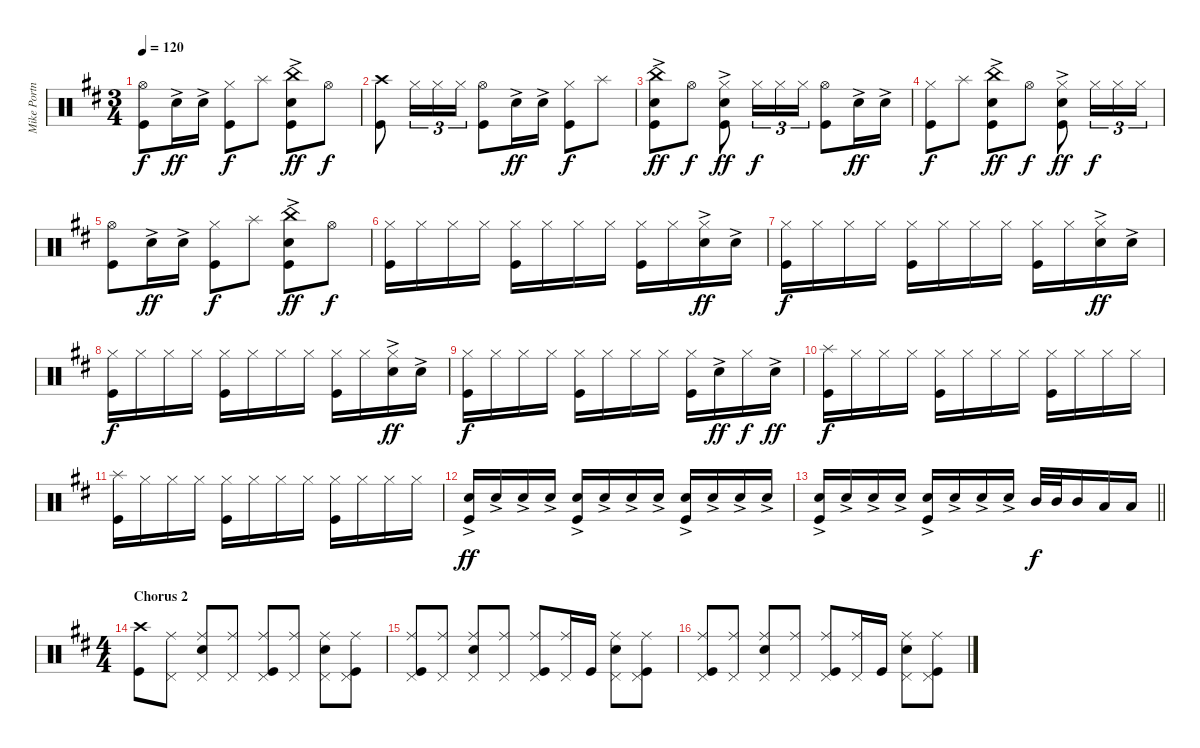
\track ("Mike Portnoy" "Mike Portn") {instrument percussion}
\staff {score}
\articulation defaults
\ts (3 4)
\tempo 120
\clef neutral
\ks bminor
("Kick (hit)" "Hi-Hat (open)").8{dy f} "Snare (hit) 2"{ac}.16{dy ff} "Snare (hit) 2"{ac}.16 ("Hi-Hat (closed)" "Kick (hit)").8{dy f} "Splash (hit)".8 ("China (hit)"{ac} "Snare (hit) 2"{ac} "Kick (hit)"{ac}).8{dy ff} "Hi-Hat (open)".8{dy f} |
("Crash high (hit)" "Kick (hit)").8 "Hi-Hat (closed)".16{tu (3 2)} "Hi-Hat (closed)".16{tu (3 2)} "Hi-Hat (closed)".16{tu (3 2)} ("Hi-Hat (open)" "Kick (hit)").8 "Snare (hit) 2"{ac}.16{dy ff} "Snare (hit) 2"{ac}.16 ("Hi-Hat (closed)" "Kick (hit)").8{dy f} "Splash (hit)".8 |
("China (hit)"{ac} "Snare (hit) 2"{ac} "Kick (hit)"{ac}).8{dy ff} "Hi-Hat (open)".8{dy f} ("Kick (hit)"{ac} "Hi-Hat (closed)"{ac} "Snare (hit) 2"{ac}).8{dy ff} "Hi-Hat (closed)".16{tu (3 2) dy f} "Hi-Hat (closed)".16{tu (3 2)} "Hi-Hat (closed)".16{tu (3 2)} ("Kick (hit)" "Hi-Hat (open)").8 "Snare (hit) 2"{ac}.16{dy ff} "Snare (hit) 2"{ac}.16 |
("Hi-Hat (closed)" "Kick (hit)").8{dy f} "Splash (hit)".8 ("China (hit)"{ac} "Snare (hit) 2"{ac} "Kick (hit)"{ac}).8{dy ff} "Hi-Hat (open)".8{dy f} ("Kick (hit)"{ac} "Hi-Hat (closed)"{ac} "Snare (hit) 2"{ac}).8{dy ff} "Hi-Hat (closed)".16{tu (3 2) dy f} "Hi-Hat (closed)".16{tu (3 2)} "Hi-Hat (closed)".16{tu (3 2)} |
("Kick (hit)" "Hi-Hat (open)").8 "Snare (hit) 2"{ac}.16{dy ff} "Snare (hit) 2"{ac}.16 ("Hi-Hat (closed)" "Kick (hit)").8{dy f} "Splash (hit)".8 ("China (hit)"{ac} "Snare (hit) 2"{ac} "Kick (hit)"{ac}).8{dy ff} "Hi-Hat (open)".8{dy f} |
("Kick (hit)" "Hi-Hat (closed)").16 "Hi-Hat (closed)".16 "Hi-Hat (closed)".16 "Hi-Hat (closed)".16 ("Hi-Hat (closed)" "Kick (hit)").16 "Hi-Hat (closed)".16 "Hi-Hat (closed)".16 "Hi-Hat (closed)".16 ("Hi-Hat (closed)" "Kick (hit)").16 "Hi-Hat (closed)".16 ("Hi-Hat (closed)"{ac} "Snare (hit) 2"{ac}).16{dy ff} "Snare (hit) 2"{ac}.16 |
("Kick (hit)" "Hi-Hat (closed)").16{dy f} "Hi-Hat (closed)".16 "Hi-Hat (closed)".16 "Hi-Hat (closed)".16 ("Hi-Hat (closed)" "Kick (hit)").16 "Hi-Hat (closed)".16 "Hi-Hat (closed)".16 "Hi-Hat (closed)".16 ("Hi-Hat (closed)" "Kick (hit)").16 "Hi-Hat (closed)".16 ("Hi-Hat (closed)"{ac} "Snare (hit) 2"{ac}).16{dy ff} "Snare (hit) 2"{ac}.16 |
("Kick (hit)" "Hi-Hat (closed)").16{dy f} "Hi-Hat (closed)".16 "Hi-Hat (closed)".16 "Hi-Hat (closed)".16 ("Hi-Hat (closed)" "Kick (hit)").16 "Hi-Hat (closed)".16 "Hi-Hat (closed)".16 "Hi-Hat (closed)".16 ("Hi-Hat (closed)" "Kick (hit)").16 "Hi-Hat (closed)".16 ("Hi-Hat (closed)"{ac} "Snare (hit) 2"{ac}).16{dy ff} "Snare (hit) 2"{ac}.16 |
("Kick (hit)" "Hi-Hat (closed)").16{dy f} "Hi-Hat (closed)".16 "Hi-Hat (closed)".16 "Hi-Hat (closed)".16 ("Hi-Hat (closed)" "Kick (hit)").16 "Hi-Hat (closed)".16 "Hi-Hat (closed)".16 "Hi-Hat (closed)".16 ("Hi-Hat (closed)" "Kick (hit)").16 "Snare (hit) 2"{ac}.16{dy ff} "Hi-Hat (closed)".16{dy f} "Snare (hit) 2"{ac}.16{dy ff} |
("Kick (hit)" "Splash (hit)").16{dy f} "Hi-Hat (closed)".16 "Hi-Hat (closed)".16 "Hi-Hat (closed)".16 ("Hi-Hat (closed)" "Kick (hit)").16 "Hi-Hat (closed)".16 "Hi-Hat (closed)".16 "Hi-Hat (closed)".16 ("Hi-Hat (closed)" "Kick (hit)").16 "Hi-Hat (closed)".16 "Hi-Hat (closed)".16 "Hi-Hat (closed)".16 |
("Kick (hit)" "Splash (hit)").16 "Hi-Hat (closed)".16 "Hi-Hat (closed)".16 "Hi-Hat (closed)".16 ("Hi-Hat (closed)" "Kick (hit)").16 "Hi-Hat (closed)".16 "Hi-Hat (closed)".16 "Hi-Hat (closed)".16 ("Hi-Hat (closed)" "Kick (hit)").16 "Hi-Hat (closed)".16 "Hi-Hat (closed)".16 "Hi-Hat (closed)".16 |
("Snare (hit) 2"{ac} "Kick (hit)"{ac}).16{dy ff} "Snare (hit) 2"{ac}.16 "Snare (hit) 2"{ac}.16 "Snare (hit) 2"{ac}.16 ("Snare (hit) 2"{ac} "Kick (hit)"{ac}).16 "Snare (hit) 2"{ac}.16 "Snare (hit) 2"{ac}.16 "Snare (hit) 2"{ac}.16 ("Snare (hit) 2"{ac} "Kick (hit)"{ac}).16 "Snare (hit) 2"{ac}.16 "Snare (hit) 2"{ac}.16 "Snare (hit) 2"{ac}.16 |
\barLineRight lightlight
("Snare (hit) 2"{ac} "Kick (hit)"{ac}).16 "Snare (hit) 2"{ac}.16 "Snare (hit) 2"{ac}.16 "Snare (hit) 2"{ac}.16 ("Snare (hit) 2"{ac} "Kick (hit)"{ac}).16 "Snare (hit) 2"{ac}.16 "Snare (hit) 2"{ac}.16 "Snare (hit) 2"{ac}.16 "Mid Tom (hit)".32{dy f} "Mid Tom (hit)".32 "Mid Tom (hit)".16 "Low Tom (hit)".16 "Low Tom (hit)".16 |
\ts (4 4)
\section ("" "Chorus 2")
("Crash high (hit)" "Kick (hit)").8 ("Pedal Hi-Hat (hit)" "Ride (middle)").8 ("Pedal Hi-Hat (hit)" "Ride (middle)" "Snare (hit) 2").8 ("Pedal Hi-Hat (hit)" "Ride (middle)").8 ("Pedal Hi-Hat (hit)" "Ride (middle)" "Kick (hit)").8 ("Pedal Hi-Hat (hit)" "Ride (middle)").8 ("Pedal Hi-Hat (hit)" "Ride (middle)" "Snare (hit) 2").8 ("Pedal Hi-Hat (hit)" "Ride (middle)" "Kick (hit)").8 |
("Pedal Hi-Hat (hit)" "Ride (middle)" "Kick (hit)").8 ("Pedal Hi-Hat (hit)" "Ride (middle)").8 ("Pedal Hi-Hat (hit)" "Ride (middle)" "Snare (hit) 2").8 ("Pedal Hi-Hat (hit)" "Ride (middle)").8 ("Pedal Hi-Hat (hit)" "Ride (middle)" "Kick (hit)").8 ("Pedal Hi-Hat (hit)" "Ride (middle)").16 "Kick (hit)".16 ("Pedal Hi-Hat (hit)" "Ride (middle)" "Snare (hit) 2").8 ("Pedal Hi-Hat (hit)" "Ride (middle)" "Kick (hit)").8 |
("Pedal Hi-Hat (hit)" "Ride (middle)" "Kick (hit)").8 ("Pedal Hi-Hat (hit)" "Ride (middle)").8 ("Pedal Hi-Hat (hit)" "Ride (middle)" "Snare (hit) 2").8 ("Pedal Hi-Hat (hit)" "Ride (middle)").8 ("Pedal Hi-Hat (hit)" "Ride (middle)" "Kick (hit)").8 ("Pedal Hi-Hat (hit)" "Ride (middle)").16 "Kick (hit)".16 ("Pedal Hi-Hat (hit)" "Ride (middle)" "Snare (hit) 2").8 ("Pedal Hi-Hat (hit)" "Ride (middle)" "Kick (hit)").8
